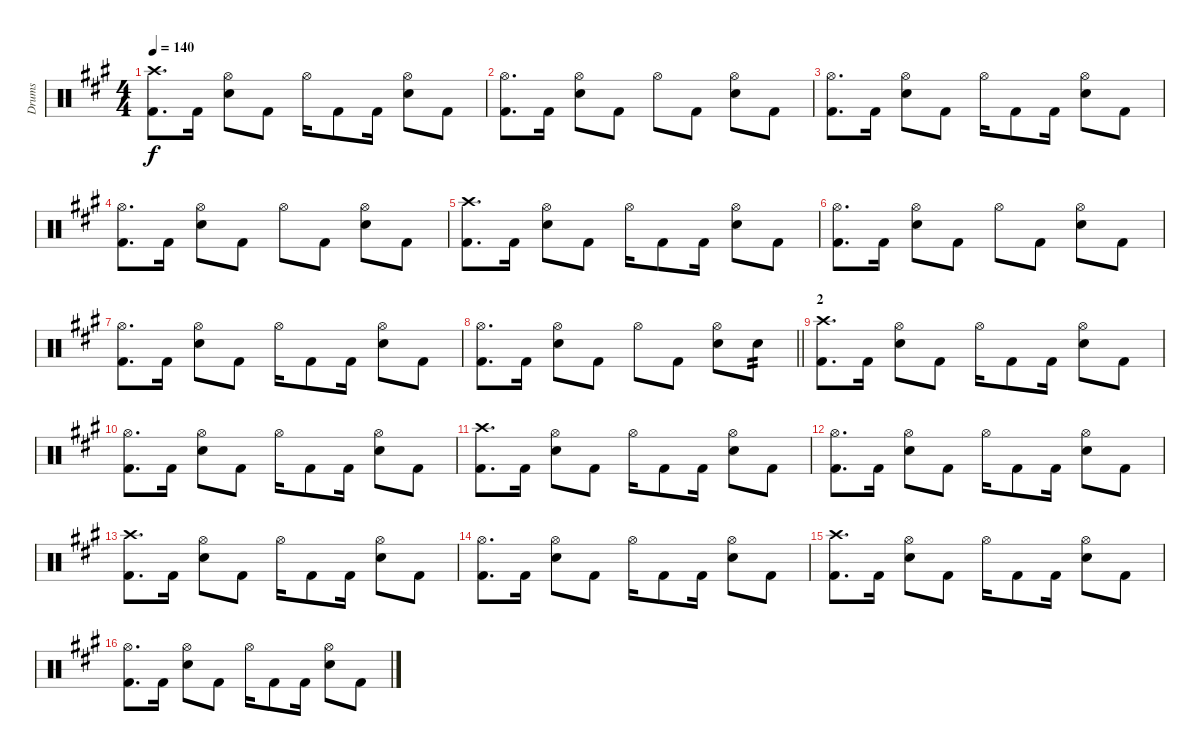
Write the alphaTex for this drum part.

\track ("Drums" "Drums") {instrument percussion}
\staff {score}
\articulation defaults
\ts (4 4)
\tempo 140
\clef neutral
\ks a
("Crash high (hit)" "Kick (hit) 2").8{d dy f} "Kick (hit) 2".16 ("Hi-Hat (open)" "Electric Snare (hit)").8 "Kick (hit) 2".8 "Hi-Hat (open)".16 "Kick (hit) 2".8 "Kick (hit) 2".16 ("Hi-Hat (open)" "Electric Snare (hit)").8 "Kick (hit) 2".8 |
("Hi-Hat (open)" "Kick (hit) 2").8{d} "Kick (hit) 2".16 ("Hi-Hat (open)" "Electric Snare (hit)").8 "Kick (hit) 2".8 "Hi-Hat (open)".8 "Kick (hit) 2".8 ("Hi-Hat (open)" "Electric Snare (hit)").8 "Kick (hit) 2".8 |
("Hi-Hat (open)" "Kick (hit) 2").8{d} "Kick (hit) 2".16 ("Hi-Hat (open)" "Electric Snare (hit)").8 "Kick (hit) 2".8 "Hi-Hat (open)".16 "Kick (hit) 2".8 "Kick (hit) 2".16 ("Hi-Hat (open)" "Electric Snare (hit)").8 "Kick (hit) 2".8 |
("Hi-Hat (open)" "Kick (hit) 2").8{d} "Kick (hit) 2".16 ("Hi-Hat (open)" "Electric Snare (hit)").8 "Kick (hit) 2".8 "Hi-Hat (open)".8 "Kick (hit) 2".8 ("Hi-Hat (open)" "Electric Snare (hit)").8 "Kick (hit) 2".8 |
("Crash high (hit)" "Kick (hit) 2").8{d} "Kick (hit) 2".16 ("Hi-Hat (open)" "Electric Snare (hit)").8 "Kick (hit) 2".8 "Hi-Hat (open)".16 "Kick (hit) 2".8 "Kick (hit) 2".16 ("Hi-Hat (open)" "Electric Snare (hit)").8 "Kick (hit) 2".8 |
("Hi-Hat (open)" "Kick (hit) 2").8{d} "Kick (hit) 2".16 ("Hi-Hat (open)" "Electric Snare (hit)").8 "Kick (hit) 2".8 "Hi-Hat (open)".8 "Kick (hit) 2".8 ("Hi-Hat (open)" "Electric Snare (hit)").8 "Kick (hit) 2".8 |
("Hi-Hat (open)" "Kick (hit) 2").8{d} "Kick (hit) 2".16 ("Hi-Hat (open)" "Electric Snare (hit)").8 "Kick (hit) 2".8 "Hi-Hat (open)".16 "Kick (hit) 2".8 "Kick (hit) 2".16 ("Hi-Hat (open)" "Electric Snare (hit)").8 "Kick (hit) 2".8 |
\barLineRight lightlight
("Hi-Hat (open)" "Kick (hit) 2").8{d} "Kick (hit) 2".16 ("Hi-Hat (open)" "Electric Snare (hit)").8 "Kick (hit) 2".8 "Hi-Hat (open)".8 "Kick (hit) 2".8 ("Hi-Hat (open)" "Electric Snare (hit)").8 "Electric Snare (hit)".8{tp 2} |
\section ("" "2")
("Crash high (hit)" "Kick (hit) 2").8{d} "Kick (hit) 2".16 ("Hi-Hat (open)" "Electric Snare (hit)").8 "Kick (hit) 2".8 "Hi-Hat (open)".16 "Kick (hit) 2".8 "Kick (hit) 2".16 ("Hi-Hat (open)" "Electric Snare (hit)").8 "Kick (hit) 2".8 |
("Hi-Hat (open)" "Kick (hit) 2").8{d} "Kick (hit) 2".16 ("Hi-Hat (open)" "Electric Snare (hit)").8 "Kick (hit) 2".8 "Hi-Hat (open)".16 "Kick (hit) 2".8 "Kick (hit) 2".16 ("Hi-Hat (open)" "Electric Snare (hit)").8 "Kick (hit) 2".8 |
("Crash high (hit)" "Kick (hit) 2").8{d} "Kick (hit) 2".16 ("Hi-Hat (open)" "Electric Snare (hit)").8 "Kick (hit) 2".8 "Hi-Hat (open)".16 "Kick (hit) 2".8 "Kick (hit) 2".16 ("Hi-Hat (open)" "Electric Snare (hit)").8 "Kick (hit) 2".8 |
("Hi-Hat (open)" "Kick (hit) 2").8{d} "Kick (hit) 2".16 ("Hi-Hat (open)" "Electric Snare (hit)").8 "Kick (hit) 2".8 "Hi-Hat (open)".16 "Kick (hit) 2".8 "Kick (hit) 2".16 ("Hi-Hat (open)" "Electric Snare (hit)").8 "Kick (hit) 2".8 |
("Crash high (hit)" "Kick (hit) 2").8{d} "Kick (hit) 2".16 ("Hi-Hat (open)" "Electric Snare (hit)").8 "Kick (hit) 2".8 "Hi-Hat (open)".16 "Kick (hit) 2".8 "Kick (hit) 2".16 ("Hi-Hat (open)" "Electric Snare (hit)").8 "Kick (hit) 2".8 |
("Hi-Hat (open)" "Kick (hit) 2").8{d} "Kick (hit) 2".16 ("Hi-Hat (open)" "Electric Snare (hit)").8 "Kick (hit) 2".8 "Hi-Hat (open)".16 "Kick (hit) 2".8 "Kick (hit) 2".16 ("Hi-Hat (open)" "Electric Snare (hit)").8 "Kick (hit) 2".8 |
("Crash high (hit)" "Kick (hit) 2").8{d} "Kick (hit) 2".16 ("Hi-Hat (open)" "Electric Snare (hit)").8 "Kick (hit) 2".8 "Hi-Hat (open)".16 "Kick (hit) 2".8 "Kick (hit) 2".16 ("Hi-Hat (open)" "Electric Snare (hit)").8 "Kick (hit) 2".8 |
("Hi-Hat (open)" "Kick (hit) 2").8{d} "Kick (hit) 2".16 ("Hi-Hat (open)" "Electric Snare (hit)").8 "Kick (hit) 2".8 "Hi-Hat (open)".16 "Kick (hit) 2".8 "Kick (hit) 2".16 ("Hi-Hat (open)" "Electric Snare (hit)").8 "Kick (hit) 2".8
